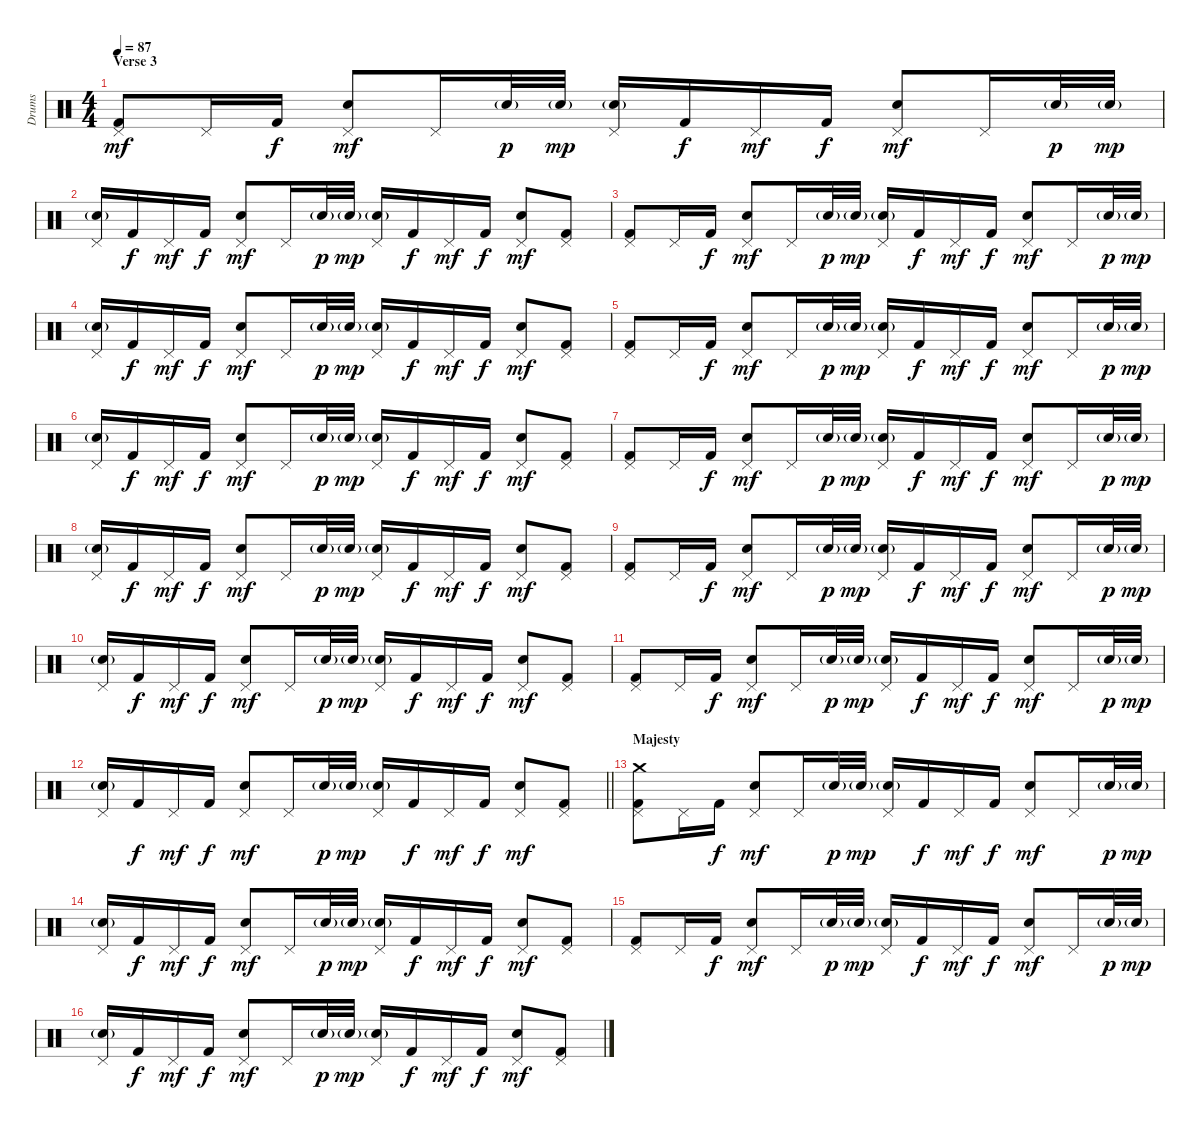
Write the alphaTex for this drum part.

\track ("Drums" "Drums") {instrument percussion}
\staff {score}
\articulation defaults
\ts (4 4)
\section ("" "Verse 3")
\tempo 87
\clef neutral
\ks c
("Pedal Hi-Hat (hit)" "Kick (hit) 2").8{dy mf} "Pedal Hi-Hat (hit)".16 "Kick (hit) 2".16{dy f} ("Pedal Hi-Hat (hit)" "Electric Snare (hit)").8{dy mf} "Pedal Hi-Hat (hit)".16 "Electric Snare (hit)"{g}.32{dy p} "Electric Snare (hit)"{g}.32{dy mp} ("Pedal Hi-Hat (hit)" "Electric Snare (hit)"{g}).16 "Kick (hit) 2".16{dy f} "Pedal Hi-Hat (hit)".16{dy mf} "Kick (hit) 2".16{dy f} ("Pedal Hi-Hat (hit)" "Electric Snare (hit)").8{dy mf} "Pedal Hi-Hat (hit)".16 "Electric Snare (hit)"{g}.32{dy p} "Electric Snare (hit)"{g}.32{dy mp} |
("Pedal Hi-Hat (hit)" "Electric Snare (hit)"{g}).16 "Kick (hit) 2".16{dy f} "Pedal Hi-Hat (hit)".16{dy mf} "Kick (hit) 2".16{dy f} ("Pedal Hi-Hat (hit)" "Electric Snare (hit)").8{dy mf} "Pedal Hi-Hat (hit)".16 "Electric Snare (hit)"{g}.32{dy p} "Electric Snare (hit)"{g}.32{dy mp} ("Pedal Hi-Hat (hit)" "Electric Snare (hit)"{g}).16 "Kick (hit) 2".16{dy f} "Pedal Hi-Hat (hit)".16{dy mf} "Kick (hit) 2".16{dy f} ("Pedal Hi-Hat (hit)" "Electric Snare (hit)").8{dy mf} ("Pedal Hi-Hat (hit)" "Kick (hit) 2").8 |
("Pedal Hi-Hat (hit)" "Kick (hit) 2").8 "Pedal Hi-Hat (hit)".16 "Kick (hit) 2".16{dy f} ("Pedal Hi-Hat (hit)" "Electric Snare (hit)").8{dy mf} "Pedal Hi-Hat (hit)".16 "Electric Snare (hit)"{g}.32{dy p} "Electric Snare (hit)"{g}.32{dy mp} ("Pedal Hi-Hat (hit)" "Electric Snare (hit)"{g}).16 "Kick (hit) 2".16{dy f} "Pedal Hi-Hat (hit)".16{dy mf} "Kick (hit) 2".16{dy f} ("Pedal Hi-Hat (hit)" "Electric Snare (hit)").8{dy mf} "Pedal Hi-Hat (hit)".16 "Electric Snare (hit)"{g}.32{dy p} "Electric Snare (hit)"{g}.32{dy mp} |
("Pedal Hi-Hat (hit)" "Electric Snare (hit)"{g}).16 "Kick (hit) 2".16{dy f} "Pedal Hi-Hat (hit)".16{dy mf} "Kick (hit) 2".16{dy f} ("Pedal Hi-Hat (hit)" "Electric Snare (hit)").8{dy mf} "Pedal Hi-Hat (hit)".16 "Electric Snare (hit)"{g}.32{dy p} "Electric Snare (hit)"{g}.32{dy mp} ("Pedal Hi-Hat (hit)" "Electric Snare (hit)"{g}).16 "Kick (hit) 2".16{dy f} "Pedal Hi-Hat (hit)".16{dy mf} "Kick (hit) 2".16{dy f} ("Pedal Hi-Hat (hit)" "Electric Snare (hit)").8{dy mf} ("Pedal Hi-Hat (hit)" "Kick (hit) 2").8 |
("Pedal Hi-Hat (hit)" "Kick (hit) 2").8 "Pedal Hi-Hat (hit)".16 "Kick (hit) 2".16{dy f} ("Pedal Hi-Hat (hit)" "Electric Snare (hit)").8{dy mf} "Pedal Hi-Hat (hit)".16 "Electric Snare (hit)"{g}.32{dy p} "Electric Snare (hit)"{g}.32{dy mp} ("Pedal Hi-Hat (hit)" "Electric Snare (hit)"{g}).16 "Kick (hit) 2".16{dy f} "Pedal Hi-Hat (hit)".16{dy mf} "Kick (hit) 2".16{dy f} ("Pedal Hi-Hat (hit)" "Electric Snare (hit)").8{dy mf} "Pedal Hi-Hat (hit)".16 "Electric Snare (hit)"{g}.32{dy p} "Electric Snare (hit)"{g}.32{dy mp} |
("Pedal Hi-Hat (hit)" "Electric Snare (hit)"{g}).16 "Kick (hit) 2".16{dy f} "Pedal Hi-Hat (hit)".16{dy mf} "Kick (hit) 2".16{dy f} ("Pedal Hi-Hat (hit)" "Electric Snare (hit)").8{dy mf} "Pedal Hi-Hat (hit)".16 "Electric Snare (hit)"{g}.32{dy p} "Electric Snare (hit)"{g}.32{dy mp} ("Pedal Hi-Hat (hit)" "Electric Snare (hit)"{g}).16 "Kick (hit) 2".16{dy f} "Pedal Hi-Hat (hit)".16{dy mf} "Kick (hit) 2".16{dy f} ("Pedal Hi-Hat (hit)" "Electric Snare (hit)").8{dy mf} ("Pedal Hi-Hat (hit)" "Kick (hit) 2").8 |
("Pedal Hi-Hat (hit)" "Kick (hit) 2").8 "Pedal Hi-Hat (hit)".16 "Kick (hit) 2".16{dy f} ("Pedal Hi-Hat (hit)" "Electric Snare (hit)").8{dy mf} "Pedal Hi-Hat (hit)".16 "Electric Snare (hit)"{g}.32{dy p} "Electric Snare (hit)"{g}.32{dy mp} ("Pedal Hi-Hat (hit)" "Electric Snare (hit)"{g}).16 "Kick (hit) 2".16{dy f} "Pedal Hi-Hat (hit)".16{dy mf} "Kick (hit) 2".16{dy f} ("Pedal Hi-Hat (hit)" "Electric Snare (hit)").8{dy mf} "Pedal Hi-Hat (hit)".16 "Electric Snare (hit)"{g}.32{dy p} "Electric Snare (hit)"{g}.32{dy mp} |
("Pedal Hi-Hat (hit)" "Electric Snare (hit)"{g}).16 "Kick (hit) 2".16{dy f} "Pedal Hi-Hat (hit)".16{dy mf} "Kick (hit) 2".16{dy f} ("Pedal Hi-Hat (hit)" "Electric Snare (hit)").8{dy mf} "Pedal Hi-Hat (hit)".16 "Electric Snare (hit)"{g}.32{dy p} "Electric Snare (hit)"{g}.32{dy mp} ("Pedal Hi-Hat (hit)" "Electric Snare (hit)"{g}).16 "Kick (hit) 2".16{dy f} "Pedal Hi-Hat (hit)".16{dy mf} "Kick (hit) 2".16{dy f} ("Pedal Hi-Hat (hit)" "Electric Snare (hit)").8{dy mf} ("Pedal Hi-Hat (hit)" "Kick (hit) 2").8 |
("Pedal Hi-Hat (hit)" "Kick (hit) 2").8 "Pedal Hi-Hat (hit)".16 "Kick (hit) 2".16{dy f} ("Pedal Hi-Hat (hit)" "Electric Snare (hit)").8{dy mf} "Pedal Hi-Hat (hit)".16 "Electric Snare (hit)"{g}.32{dy p} "Electric Snare (hit)"{g}.32{dy mp} ("Pedal Hi-Hat (hit)" "Electric Snare (hit)"{g}).16 "Kick (hit) 2".16{dy f} "Pedal Hi-Hat (hit)".16{dy mf} "Kick (hit) 2".16{dy f} ("Pedal Hi-Hat (hit)" "Electric Snare (hit)").8{dy mf} "Pedal Hi-Hat (hit)".16 "Electric Snare (hit)"{g}.32{dy p} "Electric Snare (hit)"{g}.32{dy mp} |
("Pedal Hi-Hat (hit)" "Electric Snare (hit)"{g}).16 "Kick (hit) 2".16{dy f} "Pedal Hi-Hat (hit)".16{dy mf} "Kick (hit) 2".16{dy f} ("Pedal Hi-Hat (hit)" "Electric Snare (hit)").8{dy mf} "Pedal Hi-Hat (hit)".16 "Electric Snare (hit)"{g}.32{dy p} "Electric Snare (hit)"{g}.32{dy mp} ("Pedal Hi-Hat (hit)" "Electric Snare (hit)"{g}).16 "Kick (hit) 2".16{dy f} "Pedal Hi-Hat (hit)".16{dy mf} "Kick (hit) 2".16{dy f} ("Pedal Hi-Hat (hit)" "Electric Snare (hit)").8{dy mf} ("Pedal Hi-Hat (hit)" "Kick (hit) 2").8 |
("Pedal Hi-Hat (hit)" "Kick (hit) 2").8 "Pedal Hi-Hat (hit)".16 "Kick (hit) 2".16{dy f} ("Pedal Hi-Hat (hit)" "Electric Snare (hit)").8{dy mf} "Pedal Hi-Hat (hit)".16 "Electric Snare (hit)"{g}.32{dy p} "Electric Snare (hit)"{g}.32{dy mp} ("Pedal Hi-Hat (hit)" "Electric Snare (hit)"{g}).16 "Kick (hit) 2".16{dy f} "Pedal Hi-Hat (hit)".16{dy mf} "Kick (hit) 2".16{dy f} ("Pedal Hi-Hat (hit)" "Electric Snare (hit)").8{dy mf} "Pedal Hi-Hat (hit)".16 "Electric Snare (hit)"{g}.32{dy p} "Electric Snare (hit)"{g}.32{dy mp} |
\barLineRight lightlight
("Pedal Hi-Hat (hit)" "Electric Snare (hit)"{g}).16 "Kick (hit) 2".16{dy f} "Pedal Hi-Hat (hit)".16{dy mf} "Kick (hit) 2".16{dy f} ("Pedal Hi-Hat (hit)" "Electric Snare (hit)").8{dy mf} "Pedal Hi-Hat (hit)".16 "Electric Snare (hit)"{g}.32{dy p} "Electric Snare (hit)"{g}.32{dy mp} ("Pedal Hi-Hat (hit)" "Electric Snare (hit)"{g}).16 "Kick (hit) 2".16{dy f} "Pedal Hi-Hat (hit)".16{dy mf} "Kick (hit) 2".16{dy f} ("Pedal Hi-Hat (hit)" "Electric Snare (hit)").8{dy mf} ("Pedal Hi-Hat (hit)" "Kick (hit) 2").8 |
\section ("" "Majesty")
("Pedal Hi-Hat (hit)" "Crash medium (hit)" "Kick (hit) 2").8 "Pedal Hi-Hat (hit)".16 "Kick (hit) 2".16{dy f} ("Pedal Hi-Hat (hit)" "Electric Snare (hit)").8{dy mf} "Pedal Hi-Hat (hit)".16 "Electric Snare (hit)"{g}.32{dy p} "Electric Snare (hit)"{g}.32{dy mp} ("Pedal Hi-Hat (hit)" "Electric Snare (hit)"{g}).16 "Kick (hit) 2".16{dy f} "Pedal Hi-Hat (hit)".16{dy mf} "Kick (hit) 2".16{dy f} ("Pedal Hi-Hat (hit)" "Electric Snare (hit)").8{dy mf} "Pedal Hi-Hat (hit)".16 "Electric Snare (hit)"{g}.32{dy p} "Electric Snare (hit)"{g}.32{dy mp} |
("Pedal Hi-Hat (hit)" "Electric Snare (hit)"{g}).16 "Kick (hit) 2".16{dy f} "Pedal Hi-Hat (hit)".16{dy mf} "Kick (hit) 2".16{dy f} ("Pedal Hi-Hat (hit)" "Electric Snare (hit)").8{dy mf} "Pedal Hi-Hat (hit)".16 "Electric Snare (hit)"{g}.32{dy p} "Electric Snare (hit)"{g}.32{dy mp} ("Pedal Hi-Hat (hit)" "Electric Snare (hit)"{g}).16 "Kick (hit) 2".16{dy f} "Pedal Hi-Hat (hit)".16{dy mf} "Kick (hit) 2".16{dy f} ("Pedal Hi-Hat (hit)" "Electric Snare (hit)").8{dy mf} ("Pedal Hi-Hat (hit)" "Kick (hit) 2").8 |
("Pedal Hi-Hat (hit)" "Kick (hit) 2").8 "Pedal Hi-Hat (hit)".16 "Kick (hit) 2".16{dy f} ("Pedal Hi-Hat (hit)" "Electric Snare (hit)").8{dy mf} "Pedal Hi-Hat (hit)".16 "Electric Snare (hit)"{g}.32{dy p} "Electric Snare (hit)"{g}.32{dy mp} ("Pedal Hi-Hat (hit)" "Electric Snare (hit)"{g}).16 "Kick (hit) 2".16{dy f} "Pedal Hi-Hat (hit)".16{dy mf} "Kick (hit) 2".16{dy f} ("Pedal Hi-Hat (hit)" "Electric Snare (hit)").8{dy mf} "Pedal Hi-Hat (hit)".16 "Electric Snare (hit)"{g}.32{dy p} "Electric Snare (hit)"{g}.32{dy mp} |
("Pedal Hi-Hat (hit)" "Electric Snare (hit)"{g}).16 "Kick (hit) 2".16{dy f} "Pedal Hi-Hat (hit)".16{dy mf} "Kick (hit) 2".16{dy f} ("Pedal Hi-Hat (hit)" "Electric Snare (hit)").8{dy mf} "Pedal Hi-Hat (hit)".16 "Electric Snare (hit)"{g}.32{dy p} "Electric Snare (hit)"{g}.32{dy mp} ("Pedal Hi-Hat (hit)" "Electric Snare (hit)"{g}).16 "Kick (hit) 2".16{dy f} "Pedal Hi-Hat (hit)".16{dy mf} "Kick (hit) 2".16{dy f} ("Pedal Hi-Hat (hit)" "Electric Snare (hit)").8{dy mf} ("Pedal Hi-Hat (hit)" "Kick (hit) 2").8
